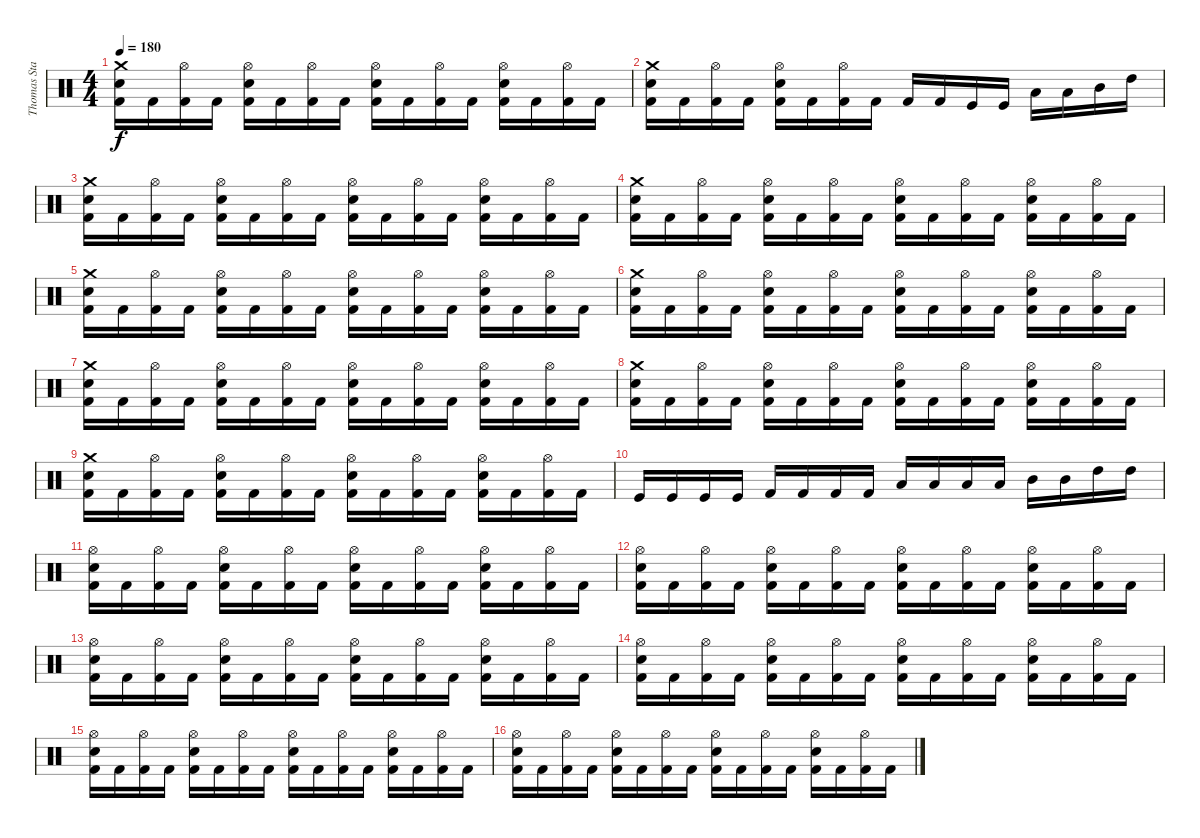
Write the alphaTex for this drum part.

\track ("Thomas Stauch" "Thomas Sta") {instrument percussion}
\staff {score}
\articulation defaults
\ts (4 4)
\tempo 180
\clef neutral
\ks c
("Kick (hit) 2" "Snare (hit) 2" "Crash medium (hit)").16{dy f} "Kick (hit) 2".16 ("Kick (hit) 2" "Hi-Hat (open)").16 "Kick (hit) 2".16 ("Kick (hit) 2" "Snare (hit) 2" "Hi-Hat (open)").16 "Kick (hit) 2".16 ("Kick (hit) 2" "Hi-Hat (open)").16 "Kick (hit) 2".16 ("Kick (hit) 2" "Snare (hit) 2" "Hi-Hat (open)").16 "Kick (hit) 2".16 ("Kick (hit) 2" "Hi-Hat (open)").16 "Kick (hit) 2".16 ("Kick (hit) 2" "Snare (hit) 2" "Hi-Hat (open)").16 "Kick (hit) 2".16 ("Kick (hit) 2" "Hi-Hat (open)").16 "Kick (hit) 2".16 |
("Kick (hit) 2" "Snare (hit) 2" "Crash medium (hit)").16 "Kick (hit) 2".16 ("Kick (hit) 2" "Hi-Hat (open)").16 "Kick (hit) 2".16 ("Kick (hit) 2" "Snare (hit) 2" "Hi-Hat (open)").16 "Kick (hit) 2".16 ("Kick (hit) 2" "Hi-Hat (open)").16 "Kick (hit) 2".16 "Kick (hit) 2".16 "Kick (hit) 2".16 "Kick (hit)".16 "Kick (hit)".16 "Low Floor Tom (hit)".16 "Low Tom (hit)".16 "Mid Tom (hit)".16 "High Tom (hit)".16 |
("Kick (hit) 2" "Snare (hit) 2" "Crash medium (hit)").16 "Kick (hit) 2".16 ("Kick (hit) 2" "Hi-Hat (open)").16 "Kick (hit) 2".16 ("Kick (hit) 2" "Snare (hit) 2" "Hi-Hat (open)").16 "Kick (hit) 2".16 ("Kick (hit) 2" "Hi-Hat (open)").16 "Kick (hit) 2".16 ("Kick (hit) 2" "Snare (hit) 2" "Hi-Hat (open)").16 "Kick (hit) 2".16 ("Kick (hit) 2" "Hi-Hat (open)").16 "Kick (hit) 2".16 ("Kick (hit) 2" "Snare (hit) 2" "Hi-Hat (open)").16 "Kick (hit) 2".16 ("Kick (hit) 2" "Hi-Hat (open)").16 "Kick (hit) 2".16 |
("Kick (hit) 2" "Snare (hit) 2" "Crash medium (hit)").16 "Kick (hit) 2".16 ("Kick (hit) 2" "Hi-Hat (open)").16 "Kick (hit) 2".16 ("Kick (hit) 2" "Snare (hit) 2" "Hi-Hat (open)").16 "Kick (hit) 2".16 ("Kick (hit) 2" "Hi-Hat (open)").16 "Kick (hit) 2".16 ("Kick (hit) 2" "Snare (hit) 2" "Hi-Hat (open)").16 "Kick (hit) 2".16 ("Kick (hit) 2" "Hi-Hat (open)").16 "Kick (hit) 2".16 ("Kick (hit) 2" "Snare (hit) 2" "Hi-Hat (open)").16 "Kick (hit) 2".16 ("Kick (hit) 2" "Hi-Hat (open)").16 "Kick (hit) 2".16 |
("Kick (hit) 2" "Snare (hit) 2" "Crash medium (hit)").16 "Kick (hit) 2".16 ("Kick (hit) 2" "Hi-Hat (open)").16 "Kick (hit) 2".16 ("Kick (hit) 2" "Snare (hit) 2" "Hi-Hat (open)").16 "Kick (hit) 2".16 ("Kick (hit) 2" "Hi-Hat (open)").16 "Kick (hit) 2".16 ("Kick (hit) 2" "Snare (hit) 2" "Hi-Hat (open)").16 "Kick (hit) 2".16 ("Kick (hit) 2" "Hi-Hat (open)").16 "Kick (hit) 2".16 ("Kick (hit) 2" "Snare (hit) 2" "Hi-Hat (open)").16 "Kick (hit) 2".16 ("Kick (hit) 2" "Hi-Hat (open)").16 "Kick (hit) 2".16 |
("Kick (hit) 2" "Snare (hit) 2" "Crash medium (hit)").16 "Kick (hit) 2".16 ("Kick (hit) 2" "Hi-Hat (open)").16 "Kick (hit) 2".16 ("Kick (hit) 2" "Snare (hit) 2" "Hi-Hat (open)").16 "Kick (hit) 2".16 ("Kick (hit) 2" "Hi-Hat (open)").16 "Kick (hit) 2".16 ("Kick (hit) 2" "Snare (hit) 2" "Hi-Hat (open)").16 "Kick (hit) 2".16 ("Kick (hit) 2" "Hi-Hat (open)").16 "Kick (hit) 2".16 ("Kick (hit) 2" "Snare (hit) 2" "Hi-Hat (open)").16 "Kick (hit) 2".16 ("Kick (hit) 2" "Hi-Hat (open)").16 "Kick (hit) 2".16 |
("Kick (hit) 2" "Snare (hit) 2" "Crash medium (hit)").16 "Kick (hit) 2".16 ("Kick (hit) 2" "Hi-Hat (open)").16 "Kick (hit) 2".16 ("Kick (hit) 2" "Snare (hit) 2" "Hi-Hat (open)").16 "Kick (hit) 2".16 ("Kick (hit) 2" "Hi-Hat (open)").16 "Kick (hit) 2".16 ("Kick (hit) 2" "Snare (hit) 2" "Hi-Hat (open)").16 "Kick (hit) 2".16 ("Kick (hit) 2" "Hi-Hat (open)").16 "Kick (hit) 2".16 ("Kick (hit) 2" "Snare (hit) 2" "Hi-Hat (open)").16 "Kick (hit) 2".16 ("Kick (hit) 2" "Hi-Hat (open)").16 "Kick (hit) 2".16 |
("Kick (hit) 2" "Snare (hit) 2" "Crash medium (hit)").16 "Kick (hit) 2".16 ("Kick (hit) 2" "Hi-Hat (open)").16 "Kick (hit) 2".16 ("Kick (hit) 2" "Snare (hit) 2" "Hi-Hat (open)").16 "Kick (hit) 2".16 ("Kick (hit) 2" "Hi-Hat (open)").16 "Kick (hit) 2".16 ("Kick (hit) 2" "Snare (hit) 2" "Hi-Hat (open)").16 "Kick (hit) 2".16 ("Kick (hit) 2" "Hi-Hat (open)").16 "Kick (hit) 2".16 ("Kick (hit) 2" "Snare (hit) 2" "Hi-Hat (open)").16 "Kick (hit) 2".16 ("Kick (hit) 2" "Hi-Hat (open)").16 "Kick (hit) 2".16 |
("Kick (hit) 2" "Snare (hit) 2" "Crash medium (hit)").16 "Kick (hit) 2".16 ("Kick (hit) 2" "Hi-Hat (open)").16 "Kick (hit) 2".16 ("Kick (hit) 2" "Snare (hit) 2" "Hi-Hat (open)").16 "Kick (hit) 2".16 ("Kick (hit) 2" "Hi-Hat (open)").16 "Kick (hit) 2".16 ("Kick (hit) 2" "Snare (hit) 2" "Hi-Hat (open)").16 "Kick (hit) 2".16 ("Kick (hit) 2" "Hi-Hat (open)").16 "Kick (hit) 2".16 ("Kick (hit) 2" "Snare (hit) 2" "Hi-Hat (open)").16 "Kick (hit) 2".16 ("Kick (hit) 2" "Hi-Hat (open)").16 "Kick (hit) 2".16 |
"Kick (hit)".16 "Kick (hit)".16 "Kick (hit)".16 "Kick (hit)".16 "Kick (hit) 2".16 "Kick (hit) 2".16 "Kick (hit) 2".16 "Kick (hit) 2".16 "Low Tom (hit)".16 "Low Tom (hit)".16 "Low Tom (hit)".16 "Low Tom (hit)".16 "Mid Tom (hit)".16 "Mid Tom (hit)".16 "High Tom (hit)".16 "High Tom (hit)".16 |
("Kick (hit) 2" "Snare (hit) 2" "Hi-Hat (open)").16 "Kick (hit) 2".16 ("Kick (hit) 2" "Hi-Hat (open)").16 "Kick (hit) 2".16 ("Kick (hit) 2" "Snare (hit) 2" "Hi-Hat (open)").16 "Kick (hit) 2".16 ("Kick (hit) 2" "Hi-Hat (open)").16 "Kick (hit) 2".16 ("Kick (hit) 2" "Snare (hit) 2" "Hi-Hat (open)").16 "Kick (hit) 2".16 ("Kick (hit) 2" "Hi-Hat (open)").16 "Kick (hit) 2".16 ("Kick (hit) 2" "Snare (hit) 2" "Hi-Hat (open)").16 "Kick (hit) 2".16 ("Kick (hit) 2" "Hi-Hat (open)").16 "Kick (hit) 2".16 |
("Kick (hit) 2" "Snare (hit) 2" "Hi-Hat (open)").16 "Kick (hit) 2".16 ("Kick (hit) 2" "Hi-Hat (open)").16 "Kick (hit) 2".16 ("Kick (hit) 2" "Snare (hit) 2" "Hi-Hat (open)").16 "Kick (hit) 2".16 ("Kick (hit) 2" "Hi-Hat (open)").16 "Kick (hit) 2".16 ("Kick (hit) 2" "Snare (hit) 2" "Hi-Hat (open)").16 "Kick (hit) 2".16 ("Kick (hit) 2" "Hi-Hat (open)").16 "Kick (hit) 2".16 ("Kick (hit) 2" "Snare (hit) 2" "Hi-Hat (open)").16 "Kick (hit) 2".16 ("Kick (hit) 2" "Hi-Hat (open)").16 "Kick (hit) 2".16 |
("Kick (hit) 2" "Snare (hit) 2" "Hi-Hat (open)").16 "Kick (hit) 2".16 ("Kick (hit) 2" "Hi-Hat (open)").16 "Kick (hit) 2".16 ("Kick (hit) 2" "Snare (hit) 2" "Hi-Hat (open)").16 "Kick (hit) 2".16 ("Kick (hit) 2" "Hi-Hat (open)").16 "Kick (hit) 2".16 ("Kick (hit) 2" "Snare (hit) 2" "Hi-Hat (open)").16 "Kick (hit) 2".16 ("Kick (hit) 2" "Hi-Hat (open)").16 "Kick (hit) 2".16 ("Kick (hit) 2" "Snare (hit) 2" "Hi-Hat (open)").16 "Kick (hit) 2".16 ("Kick (hit) 2" "Hi-Hat (open)").16 "Kick (hit) 2".16 |
("Kick (hit) 2" "Snare (hit) 2" "Hi-Hat (open)").16 "Kick (hit) 2".16 ("Kick (hit) 2" "Hi-Hat (open)").16 "Kick (hit) 2".16 ("Kick (hit) 2" "Snare (hit) 2" "Hi-Hat (open)").16 "Kick (hit) 2".16 ("Kick (hit) 2" "Hi-Hat (open)").16 "Kick (hit) 2".16 ("Kick (hit) 2" "Snare (hit) 2" "Hi-Hat (open)").16 "Kick (hit) 2".16 ("Kick (hit) 2" "Hi-Hat (open)").16 "Kick (hit) 2".16 ("Kick (hit) 2" "Snare (hit) 2" "Hi-Hat (open)").16 "Kick (hit) 2".16 ("Kick (hit) 2" "Hi-Hat (open)").16 "Kick (hit) 2".16 |
("Kick (hit) 2" "Snare (hit) 2" "Hi-Hat (open)").16 "Kick (hit) 2".16 ("Kick (hit) 2" "Hi-Hat (open)").16 "Kick (hit) 2".16 ("Kick (hit) 2" "Snare (hit) 2" "Hi-Hat (open)").16 "Kick (hit) 2".16 ("Kick (hit) 2" "Hi-Hat (open)").16 "Kick (hit) 2".16 ("Kick (hit) 2" "Snare (hit) 2" "Hi-Hat (open)").16 "Kick (hit) 2".16 ("Kick (hit) 2" "Hi-Hat (open)").16 "Kick (hit) 2".16 ("Kick (hit) 2" "Snare (hit) 2" "Hi-Hat (open)").16 "Kick (hit) 2".16 ("Kick (hit) 2" "Hi-Hat (open)").16 "Kick (hit) 2".16 |
("Kick (hit) 2" "Snare (hit) 2" "Hi-Hat (open)").16 "Kick (hit) 2".16 ("Kick (hit) 2" "Hi-Hat (open)").16 "Kick (hit) 2".16 ("Kick (hit) 2" "Snare (hit) 2" "Hi-Hat (open)").16 "Kick (hit) 2".16 ("Kick (hit) 2" "Hi-Hat (open)").16 "Kick (hit) 2".16 ("Kick (hit) 2" "Snare (hit) 2" "Hi-Hat (open)").16 "Kick (hit) 2".16 ("Kick (hit) 2" "Hi-Hat (open)").16 "Kick (hit) 2".16 ("Kick (hit) 2" "Snare (hit) 2" "Hi-Hat (open)").16 "Kick (hit) 2".16 ("Kick (hit) 2" "Hi-Hat (open)").16 "Kick (hit) 2".16
